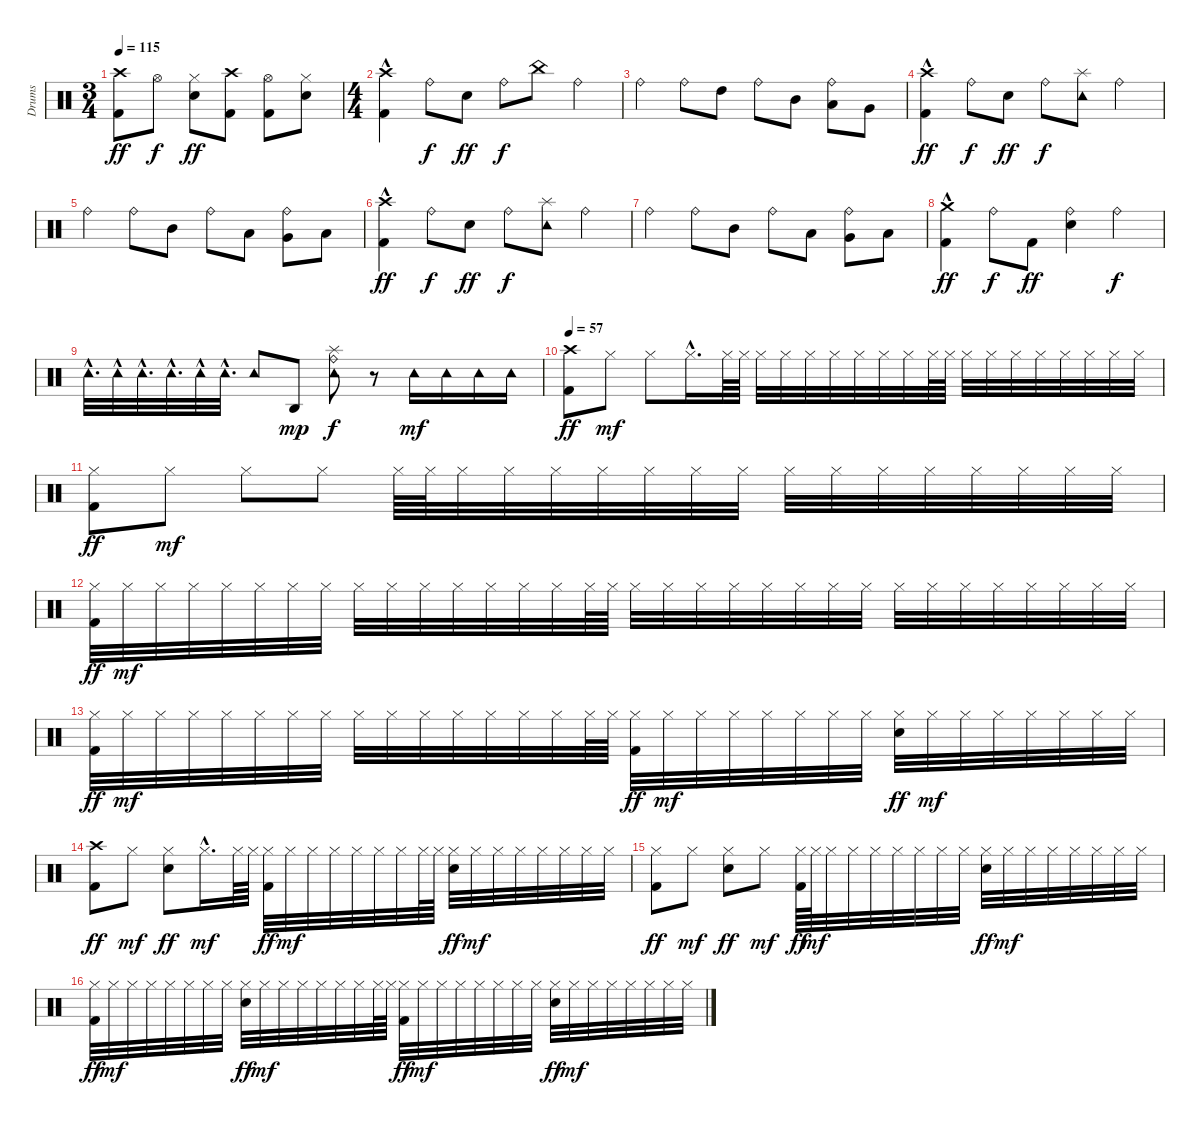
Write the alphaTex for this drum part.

\track ("Drums" "Drums") {instrument percussion}
\staff {score}
\articulation defaults
\ts (3 4)
\tempo 115
\clef neutral
\ks c
("Crash high (hit)" "Kick (hit) 2").8{dy ff} "Hi-Hat (open)".8{dy f} ("Hi-Hat (closed)" "Electric Snare (hit)").8{dy ff} ("Crash high (hit)" "Kick (hit) 2").8 ("Hi-Hat (open)" "Kick (hit) 2").8 ("Hi-Hat (closed)" "Electric Snare (hit)").8 |
\ts (4 4)
("Crash high (hit)" "Kick (hit) 2"{hac}).4 "Ride (bell)".8{dy f} "Electric Snare (hit)".8{dy ff} "Ride (bell)".8{dy f} "China (hit)".8 "Ride (bell)".4 |
"Ride (bell)".4 "Ride (bell)".8 "High Tom (hit)".8 "Ride (bell)".8 "Mid Tom (hit)".8 ("Low Tom (hit)" "Ride (bell)").8 "Very Low Tom (hit)".8 |
("Crash high (hit)" "Kick (hit) 2"{hac}).4{dy ff} "Ride (bell)".8{dy f} "Electric Snare (hit)".8{dy ff} "Ride (bell)".8{dy f} ("Splash (hit)" "Tambourine (hit)").8 "Ride (bell)".4 |
"Ride (bell)".4 "Ride (bell)".8 "Mid Tom (hit)".8 "Ride (bell)".8 "Low Tom (hit)".8 ("Ride (bell)" "Very Low Tom (hit)").8 "Low Floor Tom (hit)".8 |
("Crash high (hit)" "Kick (hit) 2"{hac}).4{dy ff} "Ride (bell)".8{dy f} "Electric Snare (hit)".8{dy ff} "Ride (bell)".8{dy f} ("Splash (hit)" "Tambourine (hit)").8 "Ride (bell)".4 |
"Ride (bell)".4 "Ride (bell)".8 "Mid Tom (hit)".8 "Ride (bell)".8 "Low Tom (hit)".8 ("Ride (bell)" "Very Low Tom (hit)").8 "Low Floor Tom (hit)".8 |
("Crash medium (hit)" "Kick (hit) 2"{hac}).4{dy ff} "Ride (bell)".8{dy f} "Kick (hit) 2".8{dy ff} ("Ride (bell)" "Electric Snare (hit)").4 "Ride (bell)".4{dy f} |
"Tambourine (hit)"{hac}.32{d} "Tambourine (hit)"{hac}.32 "Tambourine (hit)"{hac}.32{d} "Tambourine (hit)"{hac}.32{d} "Tambourine (hit)"{hac}.32 "Tambourine (hit)"{hac}.32{d} "Tambourine (hit)".8 "Agogo high (hit)".8{dy mp} ("Splash (hit)" "Tambourine (hit)" "Ride (bell)").8{dy f} r.8 "Tambourine (hit)".16{dy mf} "Tambourine (hit)".16 "Tambourine (hit)".16 "Tambourine (hit)".16 |
\tempo 57
("Crash high (hit)" "Kick (hit) 2").8{dy ff} "Hi-Hat (closed)".8{dy mf} "Hi-Hat (closed)".8 "Hi-Hat (closed)"{hac}.16{d} "Hi-Hat (closed)".64 "Hi-Hat (closed)".64 "Hi-Hat (closed)".32 "Hi-Hat (closed)".32 "Hi-Hat (closed)".32 "Hi-Hat (closed)".32 "Hi-Hat (closed)".32 "Hi-Hat (closed)".32 "Hi-Hat (closed)".32 "Hi-Hat (closed)".64 "Hi-Hat (closed)".64 "Hi-Hat (closed)".32 "Hi-Hat (closed)".32 "Hi-Hat (closed)".32 "Hi-Hat (closed)".32 "Hi-Hat (closed)".32 "Hi-Hat (closed)".32 "Hi-Hat (closed)".32 "Hi-Hat (closed)".32 |
("Hi-Hat (closed)" "Kick (hit) 2").8{dy ff} "Hi-Hat (closed)".8{dy mf} "Hi-Hat (closed)".8 "Hi-Hat (closed)".8 "Hi-Hat (closed)".64 "Hi-Hat (closed)".64 "Hi-Hat (closed)".32 "Hi-Hat (closed)".32 "Hi-Hat (closed)".32 "Hi-Hat (closed)".32 "Hi-Hat (closed)".32 "Hi-Hat (closed)".32 "Hi-Hat (closed)".32 "Hi-Hat (closed)".32 "Hi-Hat (closed)".32 "Hi-Hat (closed)".32 "Hi-Hat (closed)".32 "Hi-Hat (closed)".32 "Hi-Hat (closed)".32 "Hi-Hat (closed)".32 "Hi-Hat (closed)".32 |
("Hi-Hat (closed)" "Kick (hit) 2").32{dy ff} "Hi-Hat (closed)".32{dy mf} "Hi-Hat (closed)".32 "Hi-Hat (closed)".32 "Hi-Hat (closed)".32 "Hi-Hat (closed)".32 "Hi-Hat (closed)".32 "Hi-Hat (closed)".32 "Hi-Hat (closed)".32 "Hi-Hat (closed)".32 "Hi-Hat (closed)".32 "Hi-Hat (closed)".32 "Hi-Hat (closed)".32 "Hi-Hat (closed)".32 "Hi-Hat (closed)".32 "Hi-Hat (closed)".64 "Hi-Hat (closed)".64 "Hi-Hat (closed)".32 "Hi-Hat (closed)".32 "Hi-Hat (closed)".32 "Hi-Hat (closed)".32 "Hi-Hat (closed)".32 "Hi-Hat (closed)".32 "Hi-Hat (closed)".32 "Hi-Hat (closed)".32 "Hi-Hat (closed)".32 "Hi-Hat (closed)".32 "Hi-Hat (closed)".32 "Hi-Hat (closed)".32 "Hi-Hat (closed)".32 "Hi-Hat (closed)".32 "Hi-Hat (closed)".32 "Hi-Hat (closed)".32 |
("Hi-Hat (closed)" "Kick (hit) 2").32{dy ff} "Hi-Hat (closed)".32{dy mf} "Hi-Hat (closed)".32 "Hi-Hat (closed)".32 "Hi-Hat (closed)".32 "Hi-Hat (closed)".32 "Hi-Hat (closed)".32 "Hi-Hat (closed)".32 "Hi-Hat (closed)".32 "Hi-Hat (closed)".32 "Hi-Hat (closed)".32 "Hi-Hat (closed)".32 "Hi-Hat (closed)".32 "Hi-Hat (closed)".32 "Hi-Hat (closed)".32 "Hi-Hat (closed)".64 "Hi-Hat (closed)".64 ("Hi-Hat (closed)" "Kick (hit) 2").32{dy ff} "Hi-Hat (closed)".32{dy mf} "Hi-Hat (closed)".32 "Hi-Hat (closed)".32 "Hi-Hat (closed)".32 "Hi-Hat (closed)".32 "Hi-Hat (closed)".32 "Hi-Hat (closed)".32 ("Hi-Hat (closed)" "Electric Snare (hit)").32{dy ff} "Hi-Hat (closed)".32{dy mf} "Hi-Hat (closed)".32 "Hi-Hat (closed)".32 "Hi-Hat (closed)".32 "Hi-Hat (closed)".32 "Hi-Hat (closed)".32 "Hi-Hat (closed)".32 |
("Crash high (hit)" "Kick (hit) 2").8{dy ff} "Hi-Hat (closed)".8{dy mf} ("Hi-Hat (closed)" "Electric Snare (hit)").8{dy ff} "Hi-Hat (closed)"{hac}.16{d dy mf} "Hi-Hat (closed)".64 "Hi-Hat (closed)".64 ("Hi-Hat (closed)" "Kick (hit) 2").32{dy ff} "Hi-Hat (closed)".32{dy mf} "Hi-Hat (closed)".32 "Hi-Hat (closed)".32 "Hi-Hat (closed)".32 "Hi-Hat (closed)".32 "Hi-Hat (closed)".32 "Hi-Hat (closed)".64 "Hi-Hat (closed)".64 ("Hi-Hat (closed)" "Electric Snare (hit)").32{dy ff} "Hi-Hat (closed)".32{dy mf} "Hi-Hat (closed)".32 "Hi-Hat (closed)".32 "Hi-Hat (closed)".32 "Hi-Hat (closed)".32 "Hi-Hat (closed)".32 "Hi-Hat (closed)".32 |
("Hi-Hat (closed)" "Kick (hit) 2").8{dy ff} "Hi-Hat (closed)".8{dy mf} ("Hi-Hat (closed)" "Electric Snare (hit)").8{dy ff} "Hi-Hat (closed)".8{dy mf} ("Hi-Hat (closed)" "Kick (hit) 2").64{dy ff} "Hi-Hat (closed)".64{dy mf} "Hi-Hat (closed)".32 "Hi-Hat (closed)".32 "Hi-Hat (closed)".32 "Hi-Hat (closed)".32 "Hi-Hat (closed)".32 "Hi-Hat (closed)".32 "Hi-Hat (closed)".32 ("Hi-Hat (closed)" "Electric Snare (hit)").32{dy ff} "Hi-Hat (closed)".32{dy mf} "Hi-Hat (closed)".32 "Hi-Hat (closed)".32 "Hi-Hat (closed)".32 "Hi-Hat (closed)".32 "Hi-Hat (closed)".32 "Hi-Hat (closed)".32 |
("Hi-Hat (closed)" "Kick (hit) 2").32{dy ff} "Hi-Hat (closed)".32{dy mf} "Hi-Hat (closed)".32 "Hi-Hat (closed)".32 "Hi-Hat (closed)".32 "Hi-Hat (closed)".32 "Hi-Hat (closed)".32 "Hi-Hat (closed)".32 ("Hi-Hat (closed)" "Electric Snare (hit)").32{dy ff} "Hi-Hat (closed)".32{dy mf} "Hi-Hat (closed)".32 "Hi-Hat (closed)".32 "Hi-Hat (closed)".32 "Hi-Hat (closed)".32 "Hi-Hat (closed)".32 "Hi-Hat (closed)".64 "Hi-Hat (closed)".64 ("Hi-Hat (closed)" "Kick (hit) 2").32{dy ff} "Hi-Hat (closed)".32{dy mf} "Hi-Hat (closed)".32 "Hi-Hat (closed)".32 "Hi-Hat (closed)".32 "Hi-Hat (closed)".32 "Hi-Hat (closed)".32 "Hi-Hat (closed)".32 ("Hi-Hat (closed)" "Electric Snare (hit)").32{dy ff} "Hi-Hat (closed)".32{dy mf} "Hi-Hat (closed)".32 "Hi-Hat (closed)".32 "Hi-Hat (closed)".32 "Hi-Hat (closed)".32 "Hi-Hat (closed)".32 "Hi-Hat (closed)".32
